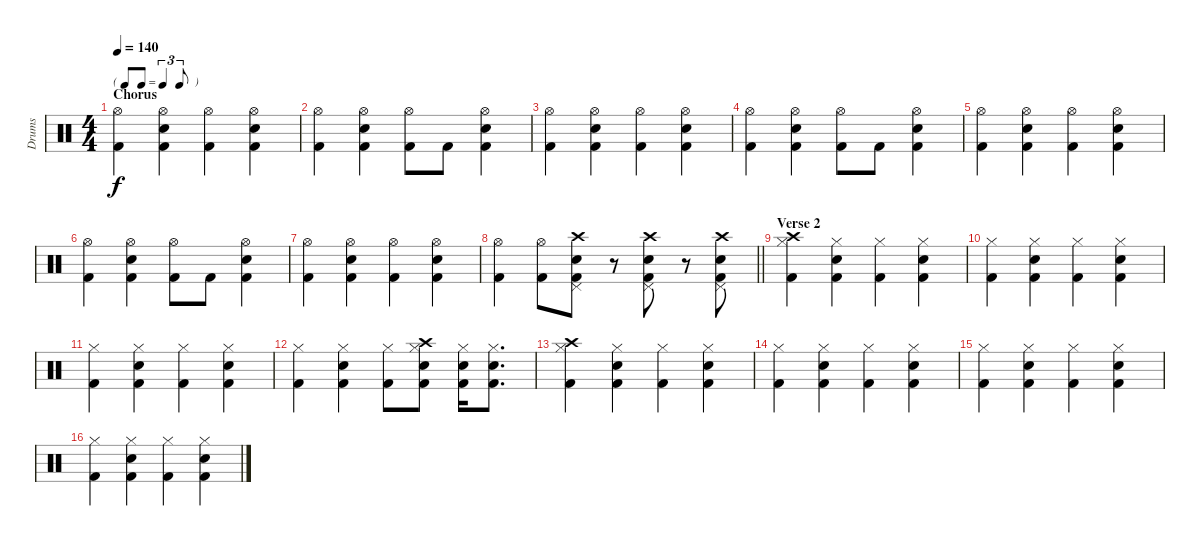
\track ("Drums" "Drums") {instrument percussion}
\staff {score}
\articulation defaults
\ts (4 4)
\tf triplet8th
\section ("" "Chorus")
\tempo 140
\clef neutral
\ks c
("Hi-Hat (open)" "Kick (hit) 2").4{dy f} ("Hi-Hat (open)" "Kick (hit) 2" "Snare (hit) 2").4 ("Hi-Hat (open)" "Kick (hit) 2").4 ("Hi-Hat (open)" "Kick (hit) 2" "Snare (hit) 2").4 |
("Hi-Hat (open)" "Kick (hit) 2").4 ("Hi-Hat (open)" "Kick (hit) 2" "Snare (hit) 2").4 ("Hi-Hat (open)" "Kick (hit) 2").8 "Kick (hit) 2".8 ("Hi-Hat (open)" "Kick (hit) 2" "Snare (hit) 2").4 |
("Hi-Hat (open)" "Kick (hit) 2").4 ("Hi-Hat (open)" "Kick (hit) 2" "Snare (hit) 2").4 ("Hi-Hat (open)" "Kick (hit) 2").4 ("Hi-Hat (open)" "Kick (hit) 2" "Snare (hit) 2").4 |
("Hi-Hat (open)" "Kick (hit) 2").4 ("Hi-Hat (open)" "Kick (hit) 2" "Snare (hit) 2").4 ("Hi-Hat (open)" "Kick (hit) 2").8 "Kick (hit) 2".8 ("Hi-Hat (open)" "Kick (hit) 2" "Snare (hit) 2").4 |
("Hi-Hat (open)" "Kick (hit) 2").4 ("Hi-Hat (open)" "Kick (hit) 2" "Snare (hit) 2").4 ("Hi-Hat (open)" "Kick (hit) 2").4 ("Hi-Hat (open)" "Kick (hit) 2" "Snare (hit) 2").4 |
("Hi-Hat (open)" "Kick (hit) 2").4 ("Hi-Hat (open)" "Kick (hit) 2" "Snare (hit) 2").4 ("Hi-Hat (open)" "Kick (hit) 2").8 "Kick (hit) 2".8 ("Hi-Hat (open)" "Kick (hit) 2" "Snare (hit) 2").4 |
("Hi-Hat (open)" "Kick (hit) 2").4 ("Hi-Hat (open)" "Kick (hit) 2" "Snare (hit) 2").4 ("Hi-Hat (open)" "Kick (hit) 2").4 ("Hi-Hat (open)" "Kick (hit) 2" "Snare (hit) 2").4 |
\barLineRight lightlight
("Hi-Hat (open)" "Kick (hit) 2").4 ("Hi-Hat (open)" "Kick (hit) 2").8 ("Pedal Hi-Hat (hit)" "Kick (hit) 2" "Snare (hit) 2" "Crash high (hit)").8 r.8 ("Pedal Hi-Hat (hit)" "Kick (hit) 2" "Snare (hit) 2" "Crash high (hit)").8 r.8 ("Pedal Hi-Hat (hit)" "Kick (hit) 2" "Snare (hit) 2" "Crash high (hit)").8 |
\section ("" "Verse 2")
("Hi-Hat (closed)" "Kick (hit) 2" "Crash high (hit)").4 ("Hi-Hat (closed)" "Kick (hit) 2" "Snare (hit) 2").4 ("Hi-Hat (closed)" "Kick (hit) 2").4 ("Hi-Hat (closed)" "Kick (hit) 2" "Snare (hit) 2").4 |
("Hi-Hat (closed)" "Kick (hit) 2").4 ("Hi-Hat (closed)" "Kick (hit) 2" "Snare (hit) 2").4 ("Hi-Hat (closed)" "Kick (hit) 2").4 ("Hi-Hat (closed)" "Kick (hit) 2" "Snare (hit) 2").4 |
("Hi-Hat (closed)" "Kick (hit) 2").4 ("Hi-Hat (closed)" "Kick (hit) 2" "Snare (hit) 2").4 ("Hi-Hat (closed)" "Kick (hit) 2").4 ("Hi-Hat (closed)" "Kick (hit) 2" "Snare (hit) 2").4 |
("Hi-Hat (closed)" "Kick (hit) 2").4 ("Hi-Hat (closed)" "Kick (hit) 2" "Snare (hit) 2").4 ("Hi-Hat (closed)" "Kick (hit) 2").8 ("Hi-Hat (closed)" "Kick (hit) 2" "Snare (hit) 2" "Crash high (hit)").8 ("Hi-Hat (closed)" "Kick (hit) 2" "Snare (hit) 2").16 ("Hi-Hat (closed)" "Kick (hit) 2" "Snare (hit) 2").8{d} |
("Hi-Hat (closed)" "Kick (hit) 2" "Crash high (hit)").4 ("Hi-Hat (closed)" "Kick (hit) 2" "Snare (hit) 2").4 ("Hi-Hat (closed)" "Kick (hit) 2").4 ("Hi-Hat (closed)" "Kick (hit) 2" "Snare (hit) 2").4 |
("Hi-Hat (closed)" "Kick (hit) 2").4 ("Hi-Hat (closed)" "Kick (hit) 2" "Snare (hit) 2").4 ("Hi-Hat (closed)" "Kick (hit) 2").4 ("Hi-Hat (closed)" "Kick (hit) 2" "Snare (hit) 2").4 |
("Hi-Hat (closed)" "Kick (hit) 2").4 ("Hi-Hat (closed)" "Kick (hit) 2" "Snare (hit) 2").4 ("Hi-Hat (closed)" "Kick (hit) 2").4 ("Hi-Hat (closed)" "Kick (hit) 2" "Snare (hit) 2").4 |
("Hi-Hat (closed)" "Kick (hit) 2").4 ("Hi-Hat (closed)" "Kick (hit) 2" "Snare (hit) 2").4 ("Hi-Hat (closed)" "Kick (hit) 2").4 ("Hi-Hat (closed)" "Kick (hit) 2" "Snare (hit) 2").4
